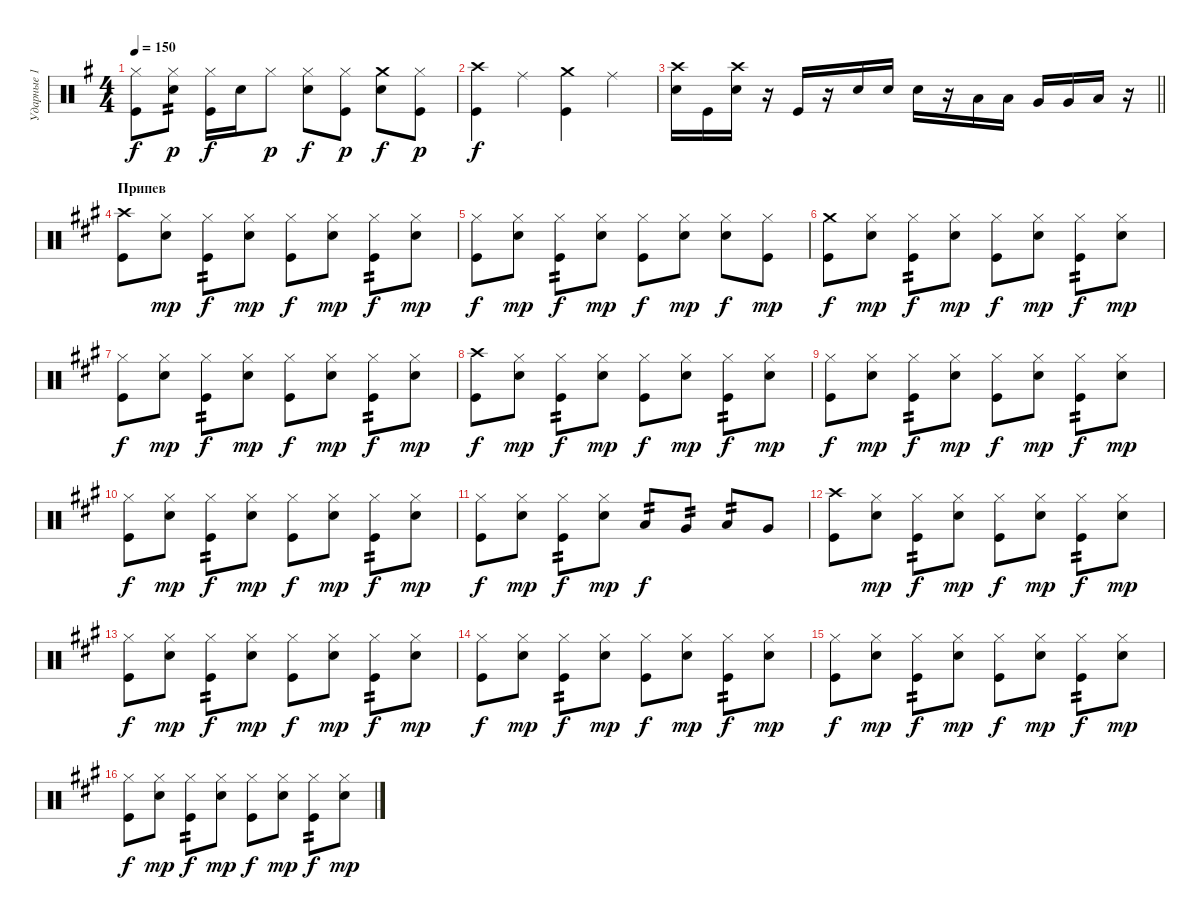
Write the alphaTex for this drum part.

\track ("Ударные 1" "Ударные 1") {instrument percussion}
\staff {score}
\articulation defaults
\ts (4 4)
\tempo 150
\clef neutral
\ks eminor
("Hi-Hat (closed)" "Kick (hit)").8{dy f} ("Hi-Hat (closed)" "Snare (hit) 2").8{tp 2 dy p} ("Hi-Hat (closed)" "Kick (hit)").16{dy f} "Snare (hit) 2".16 "Hi-Hat (closed)".8{dy p} ("Hi-Hat (closed)" "Snare (hit) 2").8{dy f} ("Hi-Hat (closed)" "Kick (hit)").8{dy p} ("Crash medium (hit)" "Snare (hit) 2").8{dy f} ("Hi-Hat (closed)" "Kick (hit)").8{dy p} |
("Crash high (hit)" "Kick (hit)").4{dy f} "Ride (middle)".4 ("Crash medium (hit)" "Kick (hit)").4 "Ride (middle)".4 |
\barLineRight lightlight
("Crash high (hit)" "Snare (hit) 2").16 "Kick (hit)".16 ("Crash high (hit)" "Snare (hit) 2").16 r.16 "Kick (hit)".16 r.16 "Snare (hit) 2".16 "Snare (hit) 2".16 "Snare (hit) 2".16 r.16 "Low Tom (hit)".16 "Low Tom (hit)".16 "Very Low Tom (hit)".16 "Very Low Tom (hit)".16 "Low Floor Tom (hit)".16 r.16 |
\section ("" "Припев")
\ks f#minor
("Crash high (hit)" "Kick (hit)").8 ("Hi-Hat (closed)" "Snare (hit) 2").8{dy mp} ("Hi-Hat (closed)" "Kick (hit)").8{tp 2 dy f} ("Hi-Hat (closed)" "Snare (hit) 2").8{dy mp} ("Hi-Hat (closed)" "Kick (hit)").8{dy f} ("Hi-Hat (closed)" "Snare (hit) 2").8{dy mp} ("Hi-Hat (closed)" "Kick (hit)").8{tp 2 dy f} ("Hi-Hat (closed)" "Snare (hit) 2").8{dy mp} |
("Hi-Hat (closed)" "Kick (hit)").8{dy f} ("Hi-Hat (closed)" "Snare (hit) 2").8{dy mp} ("Hi-Hat (closed)" "Kick (hit)").8{tp 2 dy f} ("Hi-Hat (closed)" "Snare (hit) 2").8{dy mp} ("Hi-Hat (closed)" "Kick (hit)").8{dy f} ("Hi-Hat (closed)" "Snare (hit) 2").8{dy mp} ("Hi-Hat (closed)" "Snare (hit) 2").8{dy f} ("Hi-Hat (closed)" "Kick (hit)").8{dy mp} |
("Crash medium (hit)" "Kick (hit)").8{dy f} ("Hi-Hat (closed)" "Snare (hit) 2").8{dy mp} ("Hi-Hat (closed)" "Kick (hit)").8{tp 2 dy f} ("Hi-Hat (closed)" "Snare (hit) 2").8{dy mp} ("Hi-Hat (closed)" "Kick (hit)").8{dy f} ("Hi-Hat (closed)" "Snare (hit) 2").8{dy mp} ("Hi-Hat (closed)" "Kick (hit)").8{tp 2 dy f} ("Hi-Hat (closed)" "Snare (hit) 2").8{dy mp} |
("Hi-Hat (closed)" "Kick (hit)").8{dy f} ("Hi-Hat (closed)" "Snare (hit) 2").8{dy mp} ("Hi-Hat (closed)" "Kick (hit)").8{tp 2 dy f} ("Hi-Hat (closed)" "Snare (hit) 2").8{dy mp} ("Hi-Hat (closed)" "Kick (hit)").8{dy f} ("Hi-Hat (closed)" "Snare (hit) 2").8{dy mp} ("Hi-Hat (closed)" "Kick (hit)").8{tp 2 dy f} ("Hi-Hat (closed)" "Snare (hit) 2").8{dy mp} |
("Crash high (hit)" "Kick (hit)").8{dy f} ("Hi-Hat (closed)" "Snare (hit) 2").8{dy mp} ("Hi-Hat (closed)" "Kick (hit)").8{tp 2 dy f} ("Hi-Hat (closed)" "Snare (hit) 2").8{dy mp} ("Hi-Hat (closed)" "Kick (hit)").8{dy f} ("Hi-Hat (closed)" "Snare (hit) 2").8{dy mp} ("Hi-Hat (closed)" "Kick (hit)").8{tp 2 dy f} ("Hi-Hat (closed)" "Snare (hit) 2").8{dy mp} |
("Hi-Hat (closed)" "Kick (hit)").8{dy f} ("Hi-Hat (closed)" "Snare (hit) 2").8{dy mp} ("Hi-Hat (closed)" "Kick (hit)").8{tp 2 dy f} ("Hi-Hat (closed)" "Snare (hit) 2").8{dy mp} ("Hi-Hat (closed)" "Kick (hit)").8{dy f} ("Hi-Hat (closed)" "Snare (hit) 2").8{dy mp} ("Hi-Hat (closed)" "Kick (hit)").8{tp 2 dy f} ("Hi-Hat (closed)" "Snare (hit) 2").8{dy mp} |
("Hi-Hat (closed)" "Kick (hit)").8{dy f} ("Hi-Hat (closed)" "Snare (hit) 2").8{dy mp} ("Hi-Hat (closed)" "Kick (hit)").8{tp 2 dy f} ("Hi-Hat (closed)" "Snare (hit) 2").8{dy mp} ("Hi-Hat (closed)" "Kick (hit)").8{dy f} ("Hi-Hat (closed)" "Snare (hit) 2").8{dy mp} ("Hi-Hat (closed)" "Kick (hit)").8{tp 2 dy f} ("Hi-Hat (closed)" "Snare (hit) 2").8{dy mp} |
("Hi-Hat (closed)" "Kick (hit)").8{dy f} ("Hi-Hat (closed)" "Snare (hit) 2").8{dy mp} ("Hi-Hat (closed)" "Kick (hit)").8{tp 2 dy f} ("Hi-Hat (closed)" "Snare (hit) 2").8{dy mp} "Low Tom (hit)".8{tp 2 dy f} "Very Low Tom (hit)".8{tp 2} "Low Floor Tom (hit)".8{tp 2} "Very Low Tom (hit)".8 |
("Crash high (hit)" "Kick (hit)").8 ("Hi-Hat (closed)" "Snare (hit) 2").8{dy mp} ("Hi-Hat (closed)" "Kick (hit)").8{tp 2 dy f} ("Hi-Hat (closed)" "Snare (hit) 2").8{dy mp} ("Hi-Hat (closed)" "Kick (hit)").8{dy f} ("Hi-Hat (closed)" "Snare (hit) 2").8{dy mp} ("Hi-Hat (closed)" "Kick (hit)").8{tp 2 dy f} ("Hi-Hat (closed)" "Snare (hit) 2").8{dy mp} |
("Hi-Hat (closed)" "Kick (hit)").8{dy f} ("Hi-Hat (closed)" "Snare (hit) 2").8{dy mp} ("Hi-Hat (closed)" "Kick (hit)").8{tp 2 dy f} ("Hi-Hat (closed)" "Snare (hit) 2").8{dy mp} ("Hi-Hat (closed)" "Kick (hit)").8{dy f} ("Hi-Hat (closed)" "Snare (hit) 2").8{dy mp} ("Hi-Hat (closed)" "Kick (hit)").8{tp 2 dy f} ("Hi-Hat (closed)" "Snare (hit) 2").8{dy mp} |
("Hi-Hat (closed)" "Kick (hit)").8{dy f} ("Hi-Hat (closed)" "Snare (hit) 2").8{dy mp} ("Hi-Hat (closed)" "Kick (hit)").8{tp 2 dy f} ("Hi-Hat (closed)" "Snare (hit) 2").8{dy mp} ("Hi-Hat (closed)" "Kick (hit)").8{dy f} ("Hi-Hat (closed)" "Snare (hit) 2").8{dy mp} ("Hi-Hat (closed)" "Kick (hit)").8{tp 2 dy f} ("Hi-Hat (closed)" "Snare (hit) 2").8{dy mp} |
("Hi-Hat (closed)" "Kick (hit)").8{dy f} ("Hi-Hat (closed)" "Snare (hit) 2").8{dy mp} ("Hi-Hat (closed)" "Kick (hit)").8{tp 2 dy f} ("Hi-Hat (closed)" "Snare (hit) 2").8{dy mp} ("Hi-Hat (closed)" "Kick (hit)").8{dy f} ("Hi-Hat (closed)" "Snare (hit) 2").8{dy mp} ("Hi-Hat (closed)" "Kick (hit)").8{tp 2 dy f} ("Hi-Hat (closed)" "Snare (hit) 2").8{dy mp} |
("Hi-Hat (closed)" "Kick (hit)").8{dy f} ("Hi-Hat (closed)" "Snare (hit) 2").8{dy mp} ("Hi-Hat (closed)" "Kick (hit)").8{tp 2 dy f} ("Hi-Hat (closed)" "Snare (hit) 2").8{dy mp} ("Hi-Hat (closed)" "Kick (hit)").8{dy f} ("Hi-Hat (closed)" "Snare (hit) 2").8{dy mp} ("Hi-Hat (closed)" "Kick (hit)").8{tp 2 dy f} ("Hi-Hat (closed)" "Snare (hit) 2").8{dy mp}
